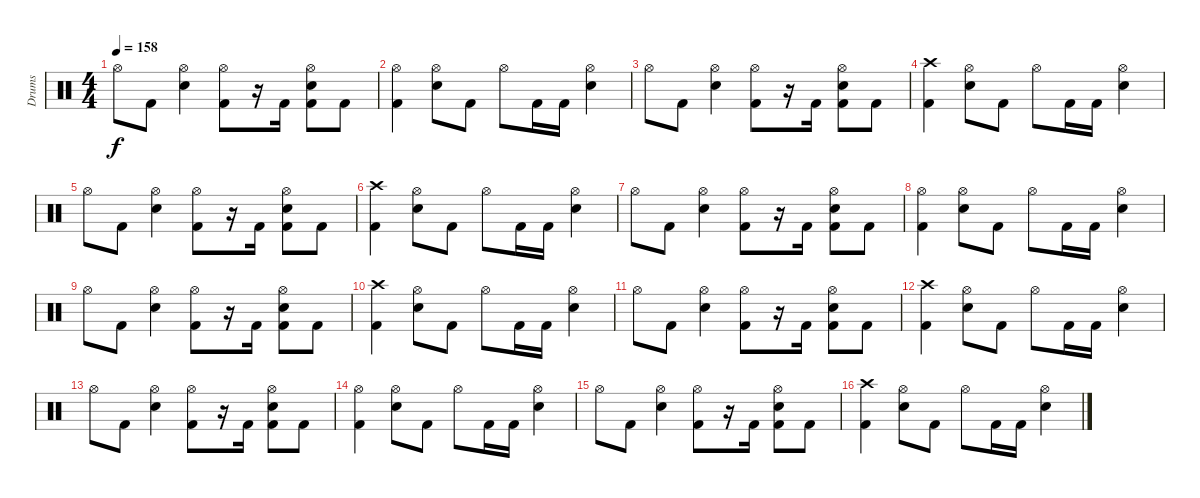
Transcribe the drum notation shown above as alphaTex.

\track ("Drums" "Drums") {instrument percussion}
\staff {score}
\articulation defaults
\ts (4 4)
\tempo 158
\clef neutral
\ks c "Hi-Hat (open)".8{dy f} "Kick (hit) 2".8
("Hi-Hat (open)" "Snare (hit) 2").4 ("Hi-Hat (open)" "Kick (hit) 2").8 r.16 "Kick (hit) 2".16 ("Hi-Hat (open)" "Snare (hit) 2" "Kick (hit) 2").8 "Kick (hit) 2".8 |
("Hi-Hat (open)" "Kick (hit) 2").4 ("Hi-Hat (open)" "Snare (hit) 2").8 "Kick (hit) 2".8 "Hi-Hat (open)".8 "Kick (hit) 2".16 "Kick (hit) 2".16 ("Hi-Hat (open)" "Snare (hit) 2").4 |
"Hi-Hat (open)".8 "Kick (hit) 2".8 ("Hi-Hat (open)" "Snare (hit) 2").4 ("Hi-Hat (open)" "Kick (hit) 2").8 r.16 "Kick (hit) 2".16 ("Hi-Hat (open)" "Snare (hit) 2" "Kick (hit) 2").8 "Kick (hit) 2".8 |
("Crash high (hit)" "Kick (hit) 2").4 ("Hi-Hat (open)" "Snare (hit) 2").8 "Kick (hit) 2".8 "Hi-Hat (open)".8 "Kick (hit) 2".16 "Kick (hit) 2".16 ("Hi-Hat (open)" "Snare (hit) 2").4 |
"Hi-Hat (open)".8 "Kick (hit) 2".8 ("Hi-Hat (open)" "Snare (hit) 2").4 ("Hi-Hat (open)" "Kick (hit) 2").8 r.16 "Kick (hit) 2".16 ("Hi-Hat (open)" "Snare (hit) 2" "Kick (hit) 2").8 "Kick (hit) 2".8 |
("Crash high (hit)" "Kick (hit) 2").4 ("Hi-Hat (open)" "Snare (hit) 2").8 "Kick (hit) 2".8 "Hi-Hat (open)".8 "Kick (hit) 2".16 "Kick (hit) 2".16 ("Hi-Hat (open)" "Snare (hit) 2").4 |
"Hi-Hat (open)".8 "Kick (hit) 2".8 ("Hi-Hat (open)" "Snare (hit) 2").4 ("Hi-Hat (open)" "Kick (hit) 2").8 r.16 "Kick (hit) 2".16 ("Hi-Hat (open)" "Snare (hit) 2" "Kick (hit) 2").8 "Kick (hit) 2".8 |
("Hi-Hat (open)" "Kick (hit) 2").4 ("Hi-Hat (open)" "Snare (hit) 2").8 "Kick (hit) 2".8 "Hi-Hat (open)".8 "Kick (hit) 2".16 "Kick (hit) 2".16 ("Hi-Hat (open)" "Snare (hit) 2").4 |
"Hi-Hat (open)".8 "Kick (hit) 2".8 ("Hi-Hat (open)" "Snare (hit) 2").4 ("Hi-Hat (open)" "Kick (hit) 2").8 r.16 "Kick (hit) 2".16 ("Hi-Hat (open)" "Snare (hit) 2" "Kick (hit) 2").8 "Kick (hit) 2".8 |
("Crash high (hit)" "Kick (hit) 2").4 ("Hi-Hat (open)" "Snare (hit) 2").8 "Kick (hit) 2".8 "Hi-Hat (open)".8 "Kick (hit) 2".16 "Kick (hit) 2".16 ("Hi-Hat (open)" "Snare (hit) 2").4 |
"Hi-Hat (open)".8 "Kick (hit) 2".8 ("Hi-Hat (open)" "Snare (hit) 2").4 ("Hi-Hat (open)" "Kick (hit) 2").8 r.16 "Kick (hit) 2".16 ("Hi-Hat (open)" "Snare (hit) 2" "Kick (hit) 2").8 "Kick (hit) 2".8 |
("Crash high (hit)" "Kick (hit) 2").4 ("Hi-Hat (open)" "Snare (hit) 2").8 "Kick (hit) 2".8 "Hi-Hat (open)".8 "Kick (hit) 2".16 "Kick (hit) 2".16 ("Hi-Hat (open)" "Snare (hit) 2").4 |
"Hi-Hat (open)".8 "Kick (hit) 2".8 ("Hi-Hat (open)" "Snare (hit) 2").4 ("Hi-Hat (open)" "Kick (hit) 2").8 r.16 "Kick (hit) 2".16 ("Hi-Hat (open)" "Snare (hit) 2" "Kick (hit) 2").8 "Kick (hit) 2".8 |
("Hi-Hat (open)" "Kick (hit) 2").4 ("Hi-Hat (open)" "Snare (hit) 2").8 "Kick (hit) 2".8 "Hi-Hat (open)".8 "Kick (hit) 2".16 "Kick (hit) 2".16 ("Hi-Hat (open)" "Snare (hit) 2").4 |
"Hi-Hat (open)".8 "Kick (hit) 2".8 ("Hi-Hat (open)" "Snare (hit) 2").4 ("Hi-Hat (open)" "Kick (hit) 2").8 r.16 "Kick (hit) 2".16 ("Hi-Hat (open)" "Snare (hit) 2" "Kick (hit) 2").8 "Kick (hit) 2".8 |
("Crash high (hit)" "Kick (hit) 2").4 ("Hi-Hat (open)" "Snare (hit) 2").8 "Kick (hit) 2".8 "Hi-Hat (open)".8 "Kick (hit) 2".16 "Kick (hit) 2".16 ("Hi-Hat (open)" "Snare (hit) 2").4
